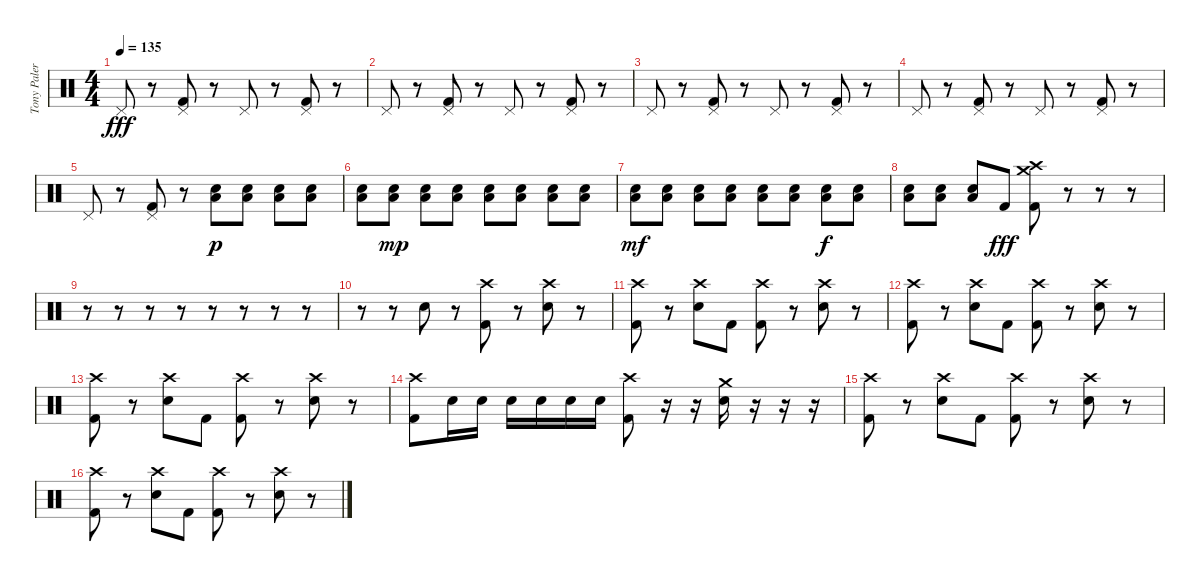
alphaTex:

\track ("Tony Palermo" "Tony Paler") {instrument percussion}
\staff {score}
\articulation defaults
\ts (4 4)
\tempo 135
\clef neutral
\ks c "Pedal Hi-Hat (hit)".8{dy fff}
r.8 ("Pedal Hi-Hat (hit)" "Kick (hit) 2").8 r.8 "Pedal Hi-Hat (hit)".8 r.8 ("Pedal Hi-Hat (hit)" "Kick (hit) 2").8 r.8 |
"Pedal Hi-Hat (hit)".8 r.8 ("Pedal Hi-Hat (hit)" "Kick (hit) 2").8 r.8 "Pedal Hi-Hat (hit)".8 r.8 ("Pedal Hi-Hat (hit)" "Kick (hit) 2").8 r.8 |
"Pedal Hi-Hat (hit)".8 r.8 ("Pedal Hi-Hat (hit)" "Kick (hit) 2").8 r.8 "Pedal Hi-Hat (hit)".8 r.8 ("Pedal Hi-Hat (hit)" "Kick (hit) 2").8 r.8 |
"Pedal Hi-Hat (hit)".8 r.8 ("Pedal Hi-Hat (hit)" "Kick (hit) 2").8 r.8 "Pedal Hi-Hat (hit)".8 r.8 ("Pedal Hi-Hat (hit)" "Kick (hit) 2").8 r.8 |
"Pedal Hi-Hat (hit)".8 r.8 ("Pedal Hi-Hat (hit)" "Kick (hit) 2").8 r.8 ("Low Floor Tom (hit)" "Snare (hit) 2").8{dy p} ("Low Floor Tom (hit)" "Snare (hit) 2").8 ("Low Floor Tom (hit)" "Snare (hit) 2").8 ("Low Floor Tom (hit)" "Snare (hit) 2").8 |
("Low Floor Tom (hit)" "Snare (hit) 2").8 ("Low Floor Tom (hit)" "Snare (hit) 2").8{dy mp} ("Low Floor Tom (hit)" "Snare (hit) 2").8 ("Low Floor Tom (hit)" "Snare (hit) 2").8 ("Low Floor Tom (hit)" "Snare (hit) 2").8 ("Low Floor Tom (hit)" "Snare (hit) 2").8 ("Low Floor Tom (hit)" "Snare (hit) 2").8 ("Low Floor Tom (hit)" "Snare (hit) 2").8 |
("Low Floor Tom (hit)" "Snare (hit) 2").8{dy mf} ("Low Floor Tom (hit)" "Snare (hit) 2").8 ("Low Floor Tom (hit)" "Snare (hit) 2").8 ("Low Floor Tom (hit)" "Snare (hit) 2").8 ("Low Floor Tom (hit)" "Snare (hit) 2").8 ("Low Floor Tom (hit)" "Snare (hit) 2").8 ("Low Floor Tom (hit)" "Snare (hit) 2").8{dy f} ("Low Floor Tom (hit)" "Snare (hit) 2").8 |
("Low Floor Tom (hit)" "Snare (hit) 2").8 ("Low Floor Tom (hit)" "Snare (hit) 2").8 ("Low Floor Tom (hit)" "Snare (hit) 2").8 "Kick (hit) 2".8{dy fff} ("Crash high (hit)" "Crash medium (hit)" "Kick (hit) 2").8 r.8 r.8 r.8 |
r.8 r.8 r.8 r.8 r.8 r.8 r.8 r.8 |
r.8 r.8 "Snare (hit) 2".8 r.8 ("Crash high (hit)" "Kick (hit) 2").8 r.8 ("Crash high (hit)" "Snare (hit) 2").8 r.8 |
("Crash high (hit)" "Kick (hit) 2").8 r.8 ("Crash high (hit)" "Snare (hit) 2").8 "Kick (hit) 2".8 ("Crash high (hit)" "Kick (hit) 2").8 r.8 ("Crash high (hit)" "Snare (hit) 2").8 r.8 |
("Crash high (hit)" "Kick (hit) 2").8 r.8 ("Crash high (hit)" "Snare (hit) 2").8 "Kick (hit) 2".8 ("Crash high (hit)" "Kick (hit) 2").8 r.8 ("Crash high (hit)" "Snare (hit) 2").8 r.8 |
("Crash high (hit)" "Kick (hit) 2").8 r.8 ("Crash high (hit)" "Snare (hit) 2").8 "Kick (hit) 2".8 ("Crash high (hit)" "Kick (hit) 2").8 r.8 ("Crash high (hit)" "Snare (hit) 2").8 r.8 |
("Crash high (hit)" "Kick (hit) 2").8 "Snare (hit) 2".16 "Snare (hit) 2".16 "Snare (hit) 2".16 "Snare (hit) 2".16 "Snare (hit) 2".16 "Snare (hit) 2".16 ("Crash high (hit)" "Kick (hit) 2").8 r.16 r.16 ("Crash medium (hit)" "Snare (hit) 2").16 r.16 r.16 r.16 |
("Crash high (hit)" "Kick (hit) 2").8 r.8 ("Crash high (hit)" "Snare (hit) 2").8 "Kick (hit) 2".8 ("Crash high (hit)" "Kick (hit) 2").8 r.8 ("Crash high (hit)" "Snare (hit) 2").8 r.8 |
("Crash high (hit)" "Kick (hit) 2").8 r.8 ("Crash high (hit)" "Snare (hit) 2").8 "Kick (hit) 2".8 ("Crash high (hit)" "Kick (hit) 2").8 r.8 ("Crash high (hit)" "Snare (hit) 2").8 r.8
